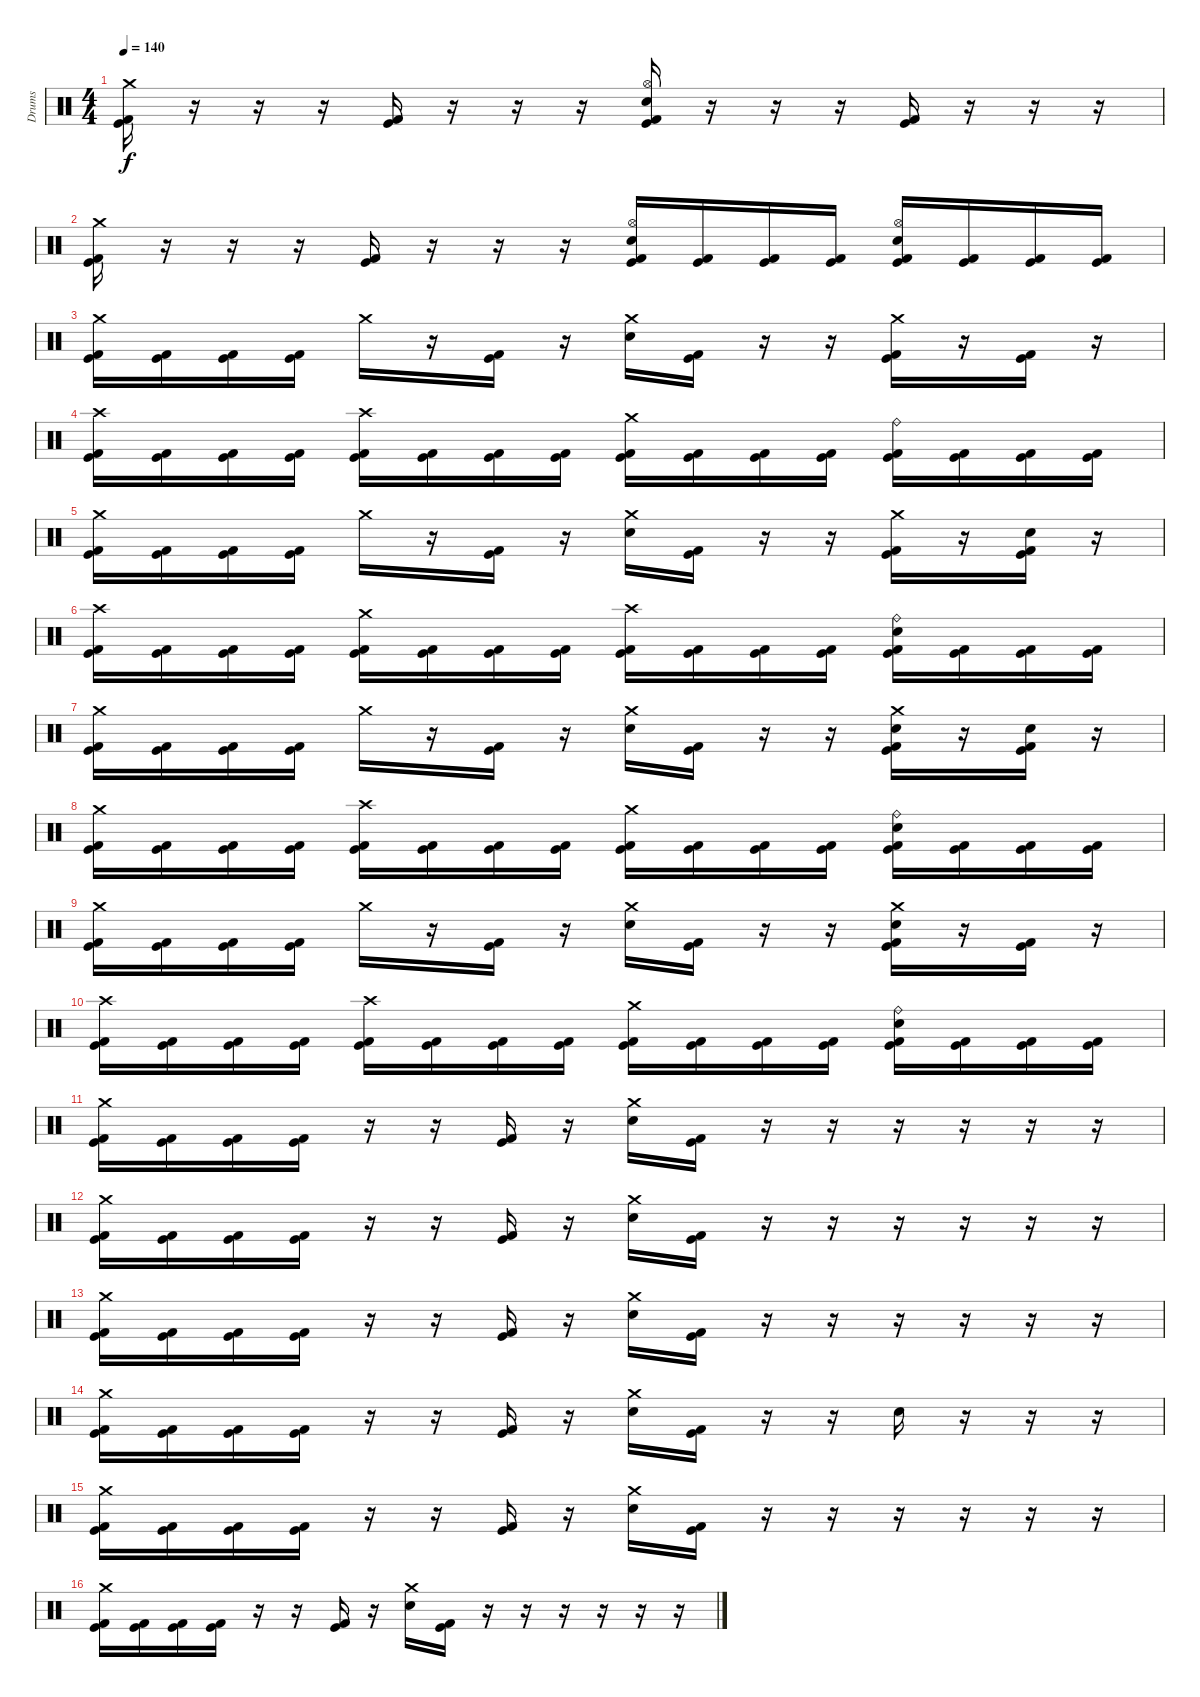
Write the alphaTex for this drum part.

\track ("Drums" "Drums") {instrument percussion}
\staff {score}
\articulation defaults
\ts (4 4)
\tempo 140
\clef neutral
\ks c
("Crash medium (hit)" "Kick (hit)" "Kick (hit) 2").16{dy f} r.16 r.16 r.16 ("Kick (hit)" "Kick (hit) 2").16 r.16 r.16 r.16 ("Hi-Hat (open)" "Electric Snare (hit)" "Kick (hit)" "Kick (hit) 2").16 r.16 r.16 r.16 ("Kick (hit)" "Kick (hit) 2").16 r.16 r.16 r.16 |
("Crash medium (hit)" "Kick (hit)" "Kick (hit) 2").16 r.16 r.16 r.16 ("Kick (hit)" "Kick (hit) 2").16 r.16 r.16 r.16 ("Hi-Hat (open)" "Electric Snare (hit)" "Kick (hit)" "Kick (hit) 2").16 ("Kick (hit)" "Kick (hit) 2").16 ("Kick (hit)" "Kick (hit) 2").16 ("Kick (hit)" "Kick (hit) 2").16 ("Hi-Hat (open)" "Electric Snare (hit)" "Kick (hit)" "Kick (hit) 2").16 ("Kick (hit)" "Kick (hit) 2").16 ("Kick (hit)" "Kick (hit) 2").16 ("Kick (hit)" "Kick (hit) 2").16 |
("Crash medium (hit)" "Kick (hit)" "Kick (hit) 2").16 ("Kick (hit)" "Kick (hit) 2").16 ("Kick (hit)" "Kick (hit) 2").16 ("Kick (hit)" "Kick (hit) 2").16 "Crash medium (hit)".16 r.16 ("Kick (hit)" "Kick (hit) 2").16 r.16 ("Crash medium (hit)" "Electric Snare (hit)").16 ("Kick (hit)" "Kick (hit) 2").16 r.16 r.16 ("Crash medium (hit)" "Kick (hit)" "Kick (hit) 2").16 r.16 ("Kick (hit)" "Kick (hit) 2").16 r.16 |
("Crash high (hit)" "Kick (hit)" "Kick (hit) 2").16 ("Kick (hit)" "Kick (hit) 2").16 ("Kick (hit)" "Kick (hit) 2").16 ("Kick (hit)" "Kick (hit) 2").16 ("Crash high (hit)" "Kick (hit)" "Kick (hit) 2").16 ("Kick (hit)" "Kick (hit) 2").16 ("Kick (hit)" "Kick (hit) 2").16 ("Kick (hit)" "Kick (hit) 2").16 ("Crash medium (hit)" "Kick (hit)" "Kick (hit) 2").16 ("Kick (hit)" "Kick (hit) 2").16 ("Kick (hit)" "Kick (hit) 2").16 ("Kick (hit)" "Kick (hit) 2").16 ("Ride (bell)" "Kick (hit)" "Kick (hit) 2").16 ("Kick (hit)" "Kick (hit) 2").16 ("Kick (hit)" "Kick (hit) 2").16 ("Kick (hit)" "Kick (hit) 2").16 |
("Crash medium (hit)" "Kick (hit)" "Kick (hit) 2").16 ("Kick (hit)" "Kick (hit) 2").16 ("Kick (hit)" "Kick (hit) 2").16 ("Kick (hit)" "Kick (hit) 2").16 "Crash medium (hit)".16 r.16 ("Kick (hit)" "Kick (hit) 2").16 r.16 ("Crash medium (hit)" "Electric Snare (hit)").16 ("Kick (hit)" "Kick (hit) 2").16 r.16 r.16 ("Crash medium (hit)" "Kick (hit)" "Kick (hit) 2").16 r.16 ("Electric Snare (hit)" "Kick (hit)" "Kick (hit) 2").16 r.16 |
("Crash high (hit)" "Kick (hit)" "Kick (hit) 2").16 ("Kick (hit)" "Kick (hit) 2").16 ("Kick (hit)" "Kick (hit) 2").16 ("Kick (hit)" "Kick (hit) 2").16 ("Crash medium (hit)" "Kick (hit)" "Kick (hit) 2").16 ("Kick (hit)" "Kick (hit) 2").16 ("Kick (hit)" "Kick (hit) 2").16 ("Kick (hit)" "Kick (hit) 2").16 ("Crash high (hit)" "Kick (hit)" "Kick (hit) 2").16 ("Kick (hit)" "Kick (hit) 2").16 ("Kick (hit)" "Kick (hit) 2").16 ("Kick (hit)" "Kick (hit) 2").16 ("Ride (bell)" "Electric Snare (hit)" "Kick (hit)" "Kick (hit) 2").16 ("Kick (hit)" "Kick (hit) 2").16 ("Kick (hit)" "Kick (hit) 2").16 ("Kick (hit)" "Kick (hit) 2").16 |
("Crash medium (hit)" "Kick (hit)" "Kick (hit) 2").16 ("Kick (hit)" "Kick (hit) 2").16 ("Kick (hit)" "Kick (hit) 2").16 ("Kick (hit)" "Kick (hit) 2").16 "Crash medium (hit)".16 r.16 ("Kick (hit)" "Kick (hit) 2").16 r.16 ("Crash medium (hit)" "Electric Snare (hit)").16 ("Kick (hit)" "Kick (hit) 2").16 r.16 r.16 ("Crash medium (hit)" "Electric Snare (hit)" "Kick (hit)" "Kick (hit) 2").16 r.16 ("Electric Snare (hit)" "Kick (hit)" "Kick (hit) 2").16 r.16 |
("Crash medium (hit)" "Kick (hit)" "Kick (hit) 2").16 ("Kick (hit)" "Kick (hit) 2").16 ("Kick (hit)" "Kick (hit) 2").16 ("Kick (hit)" "Kick (hit) 2").16 ("Crash high (hit)" "Kick (hit)" "Kick (hit) 2").16 ("Kick (hit)" "Kick (hit) 2").16 ("Kick (hit)" "Kick (hit) 2").16 ("Kick (hit)" "Kick (hit) 2").16 ("Crash medium (hit)" "Kick (hit)" "Kick (hit) 2").16 ("Kick (hit)" "Kick (hit) 2").16 ("Kick (hit)" "Kick (hit) 2").16 ("Kick (hit)" "Kick (hit) 2").16 ("Ride (bell)" "Electric Snare (hit)" "Kick (hit)" "Kick (hit) 2").16 ("Kick (hit)" "Kick (hit) 2").16 ("Kick (hit)" "Kick (hit) 2").16 ("Kick (hit)" "Kick (hit) 2").16 |
("Crash medium (hit)" "Kick (hit)" "Kick (hit) 2").16 ("Kick (hit)" "Kick (hit) 2").16 ("Kick (hit)" "Kick (hit) 2").16 ("Kick (hit)" "Kick (hit) 2").16 "Crash medium (hit)".16 r.16 ("Kick (hit)" "Kick (hit) 2").16 r.16 ("Crash medium (hit)" "Electric Snare (hit)").16 ("Kick (hit)" "Kick (hit) 2").16 r.16 r.16 ("Crash medium (hit)" "Electric Snare (hit)" "Kick (hit)" "Kick (hit) 2").16 r.16 ("Kick (hit)" "Kick (hit) 2").16 r.16 |
("Crash high (hit)" "Kick (hit)" "Kick (hit) 2").16 ("Kick (hit)" "Kick (hit) 2").16 ("Kick (hit)" "Kick (hit) 2").16 ("Kick (hit)" "Kick (hit) 2").16 ("Crash high (hit)" "Kick (hit)" "Kick (hit) 2").16 ("Kick (hit)" "Kick (hit) 2").16 ("Kick (hit)" "Kick (hit) 2").16 ("Kick (hit)" "Kick (hit) 2").16 ("Crash medium (hit)" "Kick (hit)" "Kick (hit) 2").16 ("Kick (hit)" "Kick (hit) 2").16 ("Kick (hit)" "Kick (hit) 2").16 ("Kick (hit)" "Kick (hit) 2").16 ("Ride (bell)" "Electric Snare (hit)" "Kick (hit)" "Kick (hit) 2").16 ("Kick (hit)" "Kick (hit) 2").16 ("Kick (hit)" "Kick (hit) 2").16 ("Kick (hit)" "Kick (hit) 2").16 |
("Crash medium (hit)" "Kick (hit)" "Kick (hit) 2").16 ("Kick (hit)" "Kick (hit) 2").16 ("Kick (hit)" "Kick (hit) 2").16 ("Kick (hit)" "Kick (hit) 2").16 r.16 r.16 ("Kick (hit)" "Kick (hit) 2").16 r.16 ("Crash medium (hit)" "Electric Snare (hit)").16 ("Kick (hit)" "Kick (hit) 2").16 r.16 r.16 r.16 r.16 r.16 r.16 |
("Crash medium (hit)" "Kick (hit)" "Kick (hit) 2").16 ("Kick (hit)" "Kick (hit) 2").16 ("Kick (hit)" "Kick (hit) 2").16 ("Kick (hit)" "Kick (hit) 2").16 r.16 r.16 ("Kick (hit)" "Kick (hit) 2").16 r.16 ("Crash medium (hit)" "Electric Snare (hit)").16 ("Kick (hit)" "Kick (hit) 2").16 r.16 r.16 r.16 r.16 r.16 r.16 |
("Crash medium (hit)" "Kick (hit)" "Kick (hit) 2").16 ("Kick (hit)" "Kick (hit) 2").16 ("Kick (hit)" "Kick (hit) 2").16 ("Kick (hit)" "Kick (hit) 2").16 r.16 r.16 ("Kick (hit)" "Kick (hit) 2").16 r.16 ("Crash medium (hit)" "Electric Snare (hit)").16 ("Kick (hit)" "Kick (hit) 2").16 r.16 r.16 r.16 r.16 r.16 r.16 |
("Crash medium (hit)" "Kick (hit)" "Kick (hit) 2").16 ("Kick (hit)" "Kick (hit) 2").16 ("Kick (hit)" "Kick (hit) 2").16 ("Kick (hit)" "Kick (hit) 2").16 r.16 r.16 ("Kick (hit)" "Kick (hit) 2").16 r.16 ("Crash medium (hit)" "Electric Snare (hit)").16 ("Kick (hit)" "Kick (hit) 2").16 r.16 r.16 "Electric Snare (hit)".16 r.16 r.16 r.16 |
("Crash medium (hit)" "Kick (hit)" "Kick (hit) 2").16 ("Kick (hit)" "Kick (hit) 2").16 ("Kick (hit)" "Kick (hit) 2").16 ("Kick (hit)" "Kick (hit) 2").16 r.16 r.16 ("Kick (hit)" "Kick (hit) 2").16 r.16 ("Crash medium (hit)" "Electric Snare (hit)").16 ("Kick (hit)" "Kick (hit) 2").16 r.16 r.16 r.16 r.16 r.16 r.16 |
("Crash medium (hit)" "Kick (hit)" "Kick (hit) 2").16 ("Kick (hit)" "Kick (hit) 2").16 ("Kick (hit)" "Kick (hit) 2").16 ("Kick (hit)" "Kick (hit) 2").16 r.16 r.16 ("Kick (hit)" "Kick (hit) 2").16 r.16 ("Crash medium (hit)" "Electric Snare (hit)").16 ("Kick (hit)" "Kick (hit) 2").16 r.16 r.16 r.16 r.16 r.16 r.16
